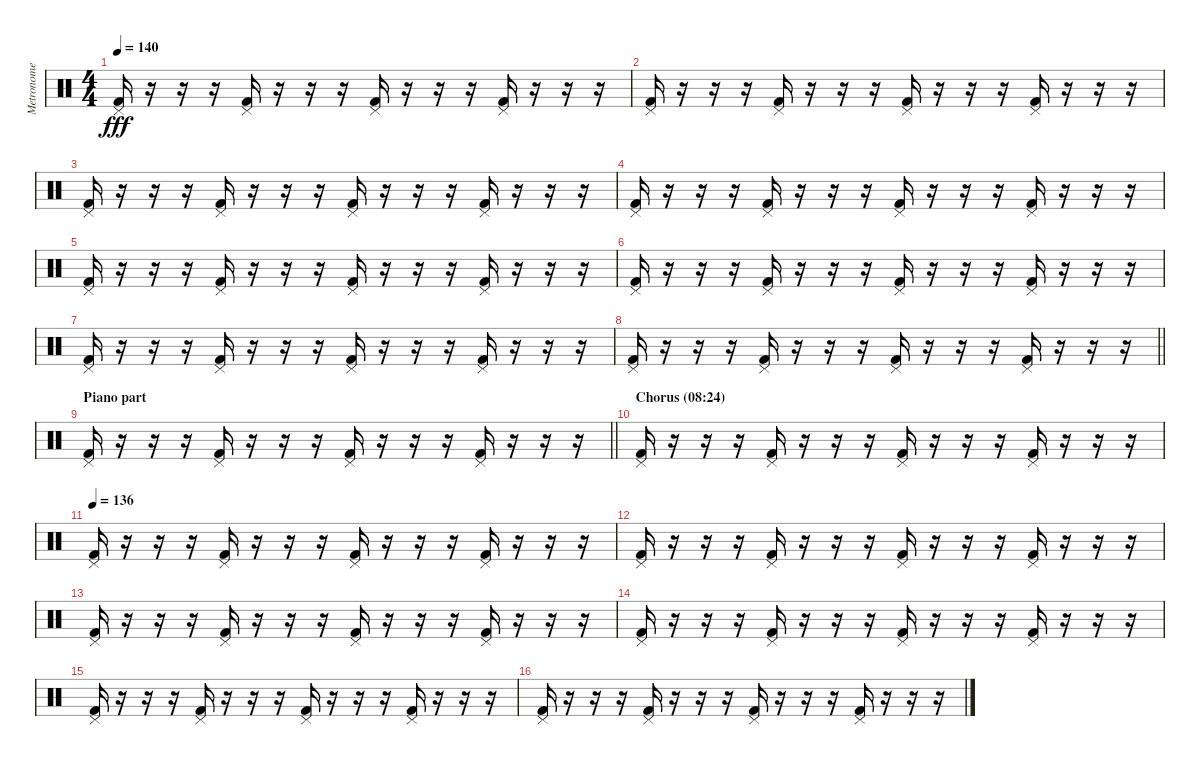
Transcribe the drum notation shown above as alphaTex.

\track ("Metronome" "Metronome") {mute instrument percussion}
\staff {score}
\articulation defaults
\ts (4 4)
\tempo 140
\clef neutral
\ks c
("Pedal Hi-Hat (hit)" "Kick (hit) 2").16{dy fff} r.16 r.16 r.16 ("Pedal Hi-Hat (hit)" "Kick (hit) 2").16 r.16 r.16 r.16 ("Pedal Hi-Hat (hit)" "Kick (hit) 2").16 r.16 r.16 r.16 ("Pedal Hi-Hat (hit)" "Kick (hit) 2").16 r.16 r.16 r.16 |
("Pedal Hi-Hat (hit)" "Kick (hit) 2").16 r.16 r.16 r.16 ("Pedal Hi-Hat (hit)" "Kick (hit) 2").16 r.16 r.16 r.16 ("Pedal Hi-Hat (hit)" "Kick (hit) 2").16 r.16 r.16 r.16 ("Pedal Hi-Hat (hit)" "Kick (hit) 2").16 r.16 r.16 r.16 |
("Pedal Hi-Hat (hit)" "Kick (hit) 2").16 r.16 r.16 r.16 ("Pedal Hi-Hat (hit)" "Kick (hit) 2").16 r.16 r.16 r.16 ("Pedal Hi-Hat (hit)" "Kick (hit) 2").16 r.16 r.16 r.16 ("Pedal Hi-Hat (hit)" "Kick (hit) 2").16 r.16 r.16 r.16 |
("Pedal Hi-Hat (hit)" "Kick (hit) 2").16 r.16 r.16 r.16 ("Pedal Hi-Hat (hit)" "Kick (hit) 2").16 r.16 r.16 r.16 ("Pedal Hi-Hat (hit)" "Kick (hit) 2").16 r.16 r.16 r.16 ("Pedal Hi-Hat (hit)" "Kick (hit) 2").16 r.16 r.16 r.16 |
("Pedal Hi-Hat (hit)" "Kick (hit) 2").16 r.16 r.16 r.16 ("Pedal Hi-Hat (hit)" "Kick (hit) 2").16 r.16 r.16 r.16 ("Pedal Hi-Hat (hit)" "Kick (hit) 2").16 r.16 r.16 r.16 ("Pedal Hi-Hat (hit)" "Kick (hit) 2").16 r.16 r.16 r.16 |
("Pedal Hi-Hat (hit)" "Kick (hit) 2").16 r.16 r.16 r.16 ("Pedal Hi-Hat (hit)" "Kick (hit) 2").16 r.16 r.16 r.16 ("Pedal Hi-Hat (hit)" "Kick (hit) 2").16 r.16 r.16 r.16 ("Pedal Hi-Hat (hit)" "Kick (hit) 2").16 r.16 r.16 r.16 |
("Pedal Hi-Hat (hit)" "Kick (hit) 2").16 r.16 r.16 r.16 ("Pedal Hi-Hat (hit)" "Kick (hit) 2").16 r.16 r.16 r.16 ("Pedal Hi-Hat (hit)" "Kick (hit) 2").16 r.16 r.16 r.16 ("Pedal Hi-Hat (hit)" "Kick (hit) 2").16 r.16 r.16 r.16 |
\barLineRight lightlight
("Pedal Hi-Hat (hit)" "Kick (hit) 2").16 r.16 r.16 r.16 ("Pedal Hi-Hat (hit)" "Kick (hit) 2").16 r.16 r.16 r.16 ("Pedal Hi-Hat (hit)" "Kick (hit) 2").16 r.16 r.16 r.16 ("Pedal Hi-Hat (hit)" "Kick (hit) 2").16 r.16 r.16 r.16 |
\section ("" "Piano part")
\barLineRight lightlight
("Pedal Hi-Hat (hit)" "Kick (hit) 2").16 r.16 r.16 r.16 ("Pedal Hi-Hat (hit)" "Kick (hit) 2").16 r.16 r.16 r.16 ("Pedal Hi-Hat (hit)" "Kick (hit) 2").16 r.16 r.16 r.16 ("Pedal Hi-Hat (hit)" "Kick (hit) 2").16 r.16 r.16 r.16 |
\section ("" "Chorus (08:24)")
("Pedal Hi-Hat (hit)" "Kick (hit) 2").16 r.16 r.16 r.16 ("Pedal Hi-Hat (hit)" "Kick (hit) 2").16 r.16 r.16 r.16 ("Pedal Hi-Hat (hit)" "Kick (hit) 2").16 r.16 r.16 r.16 ("Pedal Hi-Hat (hit)" "Kick (hit) 2").16 r.16 r.16 r.16 |
\tempo 136
("Pedal Hi-Hat (hit)" "Kick (hit) 2").16 r.16 r.16 r.16 ("Pedal Hi-Hat (hit)" "Kick (hit) 2").16 r.16 r.16 r.16 ("Pedal Hi-Hat (hit)" "Kick (hit) 2").16 r.16 r.16 r.16 ("Pedal Hi-Hat (hit)" "Kick (hit) 2").16 r.16 r.16 r.16 |
("Pedal Hi-Hat (hit)" "Kick (hit) 2").16 r.16 r.16 r.16 ("Pedal Hi-Hat (hit)" "Kick (hit) 2").16 r.16 r.16 r.16 ("Pedal Hi-Hat (hit)" "Kick (hit) 2").16 r.16 r.16 r.16 ("Pedal Hi-Hat (hit)" "Kick (hit) 2").16 r.16 r.16 r.16 |
("Pedal Hi-Hat (hit)" "Kick (hit) 2").16 r.16 r.16 r.16 ("Pedal Hi-Hat (hit)" "Kick (hit) 2").16 r.16 r.16 r.16 ("Pedal Hi-Hat (hit)" "Kick (hit) 2").16 r.16 r.16 r.16 ("Pedal Hi-Hat (hit)" "Kick (hit) 2").16 r.16 r.16 r.16 |
("Pedal Hi-Hat (hit)" "Kick (hit) 2").16 r.16 r.16 r.16 ("Pedal Hi-Hat (hit)" "Kick (hit) 2").16 r.16 r.16 r.16 ("Pedal Hi-Hat (hit)" "Kick (hit) 2").16 r.16 r.16 r.16 ("Pedal Hi-Hat (hit)" "Kick (hit) 2").16 r.16 r.16 r.16 |
("Pedal Hi-Hat (hit)" "Kick (hit) 2").16 r.16 r.16 r.16 ("Pedal Hi-Hat (hit)" "Kick (hit) 2").16 r.16 r.16 r.16 ("Pedal Hi-Hat (hit)" "Kick (hit) 2").16 r.16 r.16 r.16 ("Pedal Hi-Hat (hit)" "Kick (hit) 2").16 r.16 r.16 r.16 |
("Pedal Hi-Hat (hit)" "Kick (hit) 2").16 r.16 r.16 r.16 ("Pedal Hi-Hat (hit)" "Kick (hit) 2").16 r.16 r.16 r.16 ("Pedal Hi-Hat (hit)" "Kick (hit) 2").16 r.16 r.16 r.16 ("Pedal Hi-Hat (hit)" "Kick (hit) 2").16 r.16 r.16 r.16
